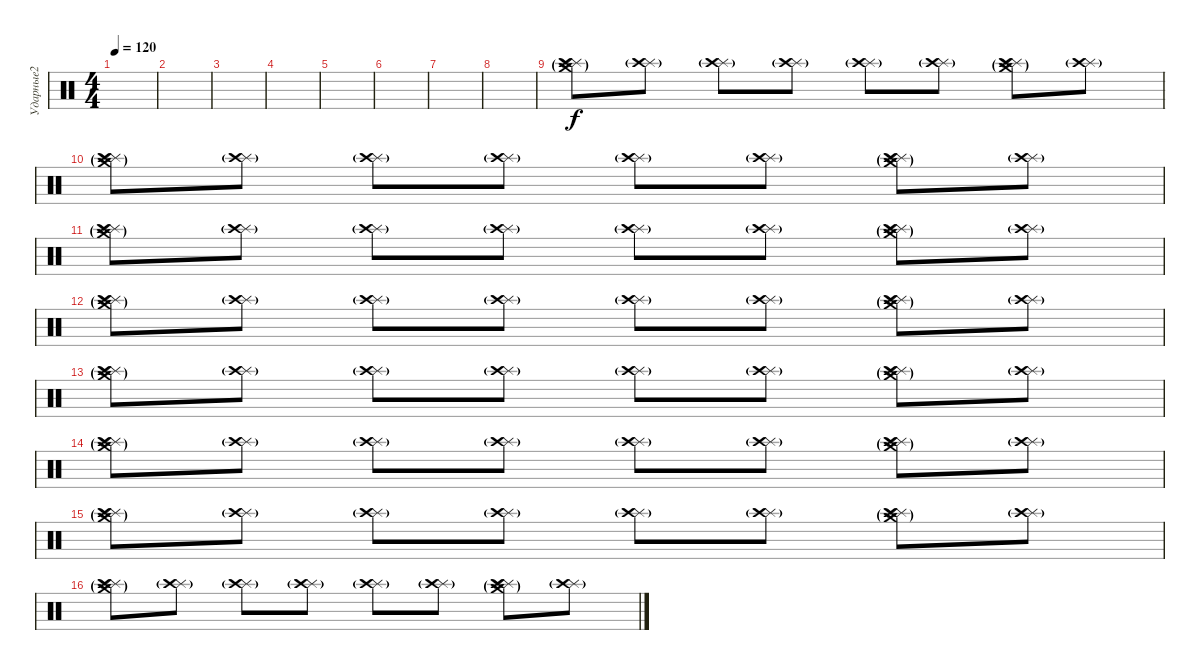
\track ("Ударные2" "Ударные2") {instrument percussion bank 2}
\staff {score}
\articulation defaults
\ts (4 4)
\tempo 120
\clef neutral
\ks c
|
|
|
|
|
|
|
|
("Splash (hit)" "Crash high (hit)"{g} "Splash (hit)"{g} "Crash medium (hit)"{g}).8 ("Splash (hit)"{g} "Crash high (hit)"{g}).8 ("Splash (hit)"{g} "Crash high (hit)"{g}).8 ("Splash (hit)"{g} "Crash high (hit)"{g}).8 ("Splash (hit)"{g} "Crash high (hit)"{g}).8 ("Splash (hit)"{g} "Crash high (hit)"{g}).8 ("Splash (hit)" "Crash high (hit)"{g} "Splash (hit)"{g} "Crash medium (hit)"{g}).8 ("Splash (hit)"{g} "Crash high (hit)"{g}).8 |
("Splash (hit)" "Crash high (hit)"{g} "Splash (hit)"{g} "Crash medium (hit)"{g}).8 ("Splash (hit)"{g} "Crash high (hit)"{g}).8 ("Splash (hit)"{g} "Crash high (hit)"{g}).8 ("Splash (hit)"{g} "Crash high (hit)"{g}).8 ("Splash (hit)"{g} "Crash high (hit)"{g}).8 ("Splash (hit)"{g} "Crash high (hit)"{g}).8 ("Splash (hit)" "Crash high (hit)"{g} "Splash (hit)"{g} "Crash medium (hit)"{g}).8 ("Splash (hit)"{g} "Crash high (hit)"{g}).8 |
("Splash (hit)" "Crash high (hit)"{g} "Splash (hit)"{g} "Crash medium (hit)"{g}).8 ("Splash (hit)"{g} "Crash high (hit)"{g}).8 ("Splash (hit)"{g} "Crash high (hit)"{g}).8 ("Splash (hit)"{g} "Crash high (hit)"{g}).8 ("Splash (hit)"{g} "Crash high (hit)"{g}).8 ("Splash (hit)"{g} "Crash high (hit)"{g}).8 ("Splash (hit)" "Crash high (hit)"{g} "Splash (hit)"{g} "Crash medium (hit)"{g}).8 ("Splash (hit)"{g} "Crash high (hit)"{g}).8 |
("Splash (hit)" "Crash high (hit)"{g} "Splash (hit)"{g} "Crash medium (hit)"{g}).8 ("Splash (hit)"{g} "Crash high (hit)"{g}).8 ("Splash (hit)"{g} "Crash high (hit)"{g}).8 ("Splash (hit)"{g} "Crash high (hit)"{g}).8 ("Splash (hit)"{g} "Crash high (hit)"{g}).8 ("Splash (hit)"{g} "Crash high (hit)"{g}).8 ("Splash (hit)"{g} "Crash high (hit)"{g} "Splash (hit)"{g} "Crash medium (hit)"{g}).8 ("Splash (hit)"{g} "Crash high (hit)"{g}).8 |
("Splash (hit)" "Crash high (hit)"{g} "Splash (hit)"{g} "Crash medium (hit)"{g}).8 ("Splash (hit)"{g} "Crash high (hit)"{g}).8 ("Splash (hit)"{g} "Crash high (hit)"{g}).8 ("Splash (hit)"{g} "Crash high (hit)"{g}).8 ("Splash (hit)"{g} "Crash high (hit)"{g}).8 ("Splash (hit)"{g} "Crash high (hit)"{g}).8 ("Splash (hit)" "Crash high (hit)"{g} "Splash (hit)"{g} "Crash medium (hit)"{g}).8 ("Splash (hit)"{g} "Crash high (hit)"{g}).8 |
("Splash (hit)" "Crash high (hit)"{g} "Splash (hit)"{g} "Crash medium (hit)"{g}).8 ("Splash (hit)"{g} "Crash high (hit)"{g}).8 ("Splash (hit)"{g} "Crash high (hit)"{g}).8 ("Splash (hit)"{g} "Crash high (hit)"{g}).8 ("Splash (hit)"{g} "Crash high (hit)"{g}).8 ("Splash (hit)"{g} "Crash high (hit)"{g}).8 ("Splash (hit)" "Crash high (hit)"{g} "Splash (hit)"{g} "Crash medium (hit)"{g}).8 ("Splash (hit)"{g} "Crash high (hit)"{g}).8 |
("Splash (hit)" "Crash high (hit)"{g} "Splash (hit)"{g} "Crash medium (hit)"{g}).8 ("Splash (hit)"{g} "Crash high (hit)"{g}).8 ("Splash (hit)"{g} "Crash high (hit)"{g}).8 ("Splash (hit)"{g} "Crash high (hit)"{g}).8 ("Splash (hit)"{g} "Crash high (hit)"{g}).8 ("Splash (hit)"{g} "Crash high (hit)"{g}).8 ("Splash (hit)" "Crash high (hit)"{g} "Splash (hit)"{g} "Crash medium (hit)"{g}).8 ("Splash (hit)"{g} "Crash high (hit)"{g}).8 |
("Splash (hit)" "Crash high (hit)"{g} "Splash (hit)"{g} "Crash medium (hit)"{g}).8 ("Splash (hit)"{g} "Crash high (hit)"{g}).8 ("Splash (hit)"{g} "Crash high (hit)"{g}).8 ("Splash (hit)"{g} "Crash high (hit)"{g}).8 ("Splash (hit)"{g} "Crash high (hit)"{g}).8 ("Splash (hit)"{g} "Crash high (hit)"{g}).8 ("Splash (hit)"{g} "Crash high (hit)"{g} "Splash (hit)"{g} "Crash medium (hit)"{g}).8 ("Splash (hit)"{g} "Crash high (hit)"{g}).8
